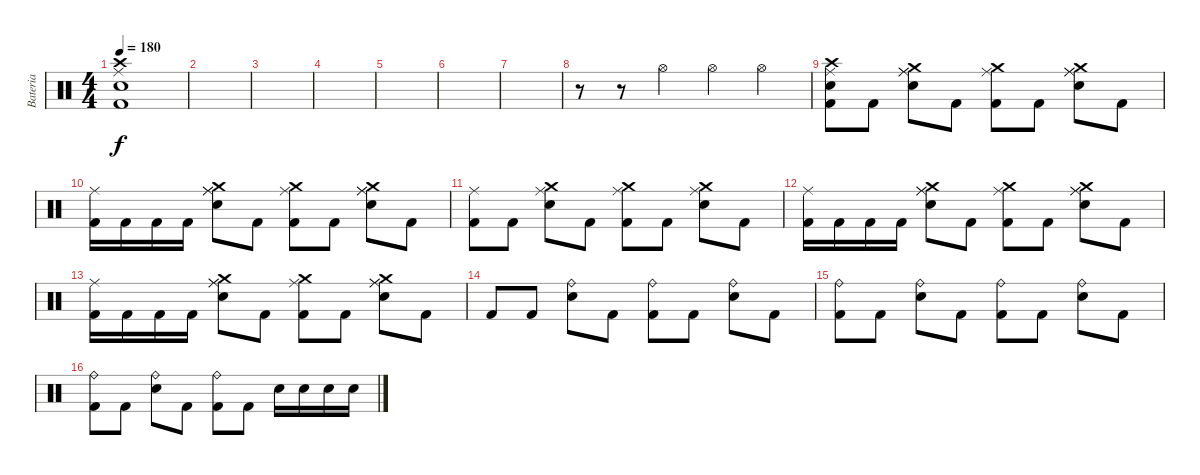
\track ("Bateria" "Bateria") {instrument percussion}
\staff {score}
\articulation defaults
\ts (4 4)
\tempo 180
\clef neutral
\ks c
("Ride (middle)" "Crash high (hit)" "Electric Snare (hit)" "Kick (hit) 2").1{dy f} |
|
|
|
|
|
|
r.8 r.8 "Hi-Hat (open)".4 "Hi-Hat (open)".4 "Hi-Hat (open)".4 |
("Kick (hit) 2" "Electric Snare (hit)" "Ride (middle)" "Crash high (hit)").8 "Kick (hit) 2".8 ("Electric Snare (hit)" "Ride (middle)" "Ride (middle)" "Crash medium (hit)").8 "Kick (hit) 2".8 ("Kick (hit) 2" "Ride (middle)" "Crash medium (hit)").8 "Kick (hit) 2".8 ("Electric Snare (hit)" "Ride (middle)" "Ride (middle)" "Crash medium (hit)").8 "Kick (hit) 2".8 |
("Kick (hit) 2" "Ride (middle)").16 "Kick (hit) 2".16 "Kick (hit) 2".16 "Kick (hit) 2".16 ("Electric Snare (hit)" "Ride (middle)" "Ride (middle)" "Crash medium (hit)").8 "Kick (hit) 2".8 ("Kick (hit) 2" "Ride (middle)" "Crash medium (hit)").8 "Kick (hit) 2".8 ("Electric Snare (hit)" "Ride (middle)" "Ride (middle)" "Crash medium (hit)").8 "Kick (hit) 2".8 |
("Kick (hit) 2" "Ride (middle)").8 "Kick (hit) 2".8 ("Electric Snare (hit)" "Ride (middle)" "Crash medium (hit)").8 "Kick (hit) 2".8 ("Kick (hit) 2" "Ride (middle)" "Crash medium (hit)").8 "Kick (hit) 2".8 ("Electric Snare (hit)" "Ride (middle)" "Crash medium (hit)").8 "Kick (hit) 2".8 |
("Kick (hit) 2" "Ride (middle)").16 "Kick (hit) 2".16 "Kick (hit) 2".16 "Kick (hit) 2".16 ("Electric Snare (hit)" "Ride (middle)" "Ride (middle)" "Crash medium (hit)").8 "Kick (hit) 2".8 ("Kick (hit) 2" "Ride (middle)" "Crash medium (hit)").8 "Kick (hit) 2".8 ("Electric Snare (hit)" "Ride (middle)" "Ride (middle)" "Crash medium (hit)").8 "Kick (hit) 2".8 |
("Kick (hit) 2" "Ride (middle)").16 "Kick (hit) 2".16 "Kick (hit) 2".16 "Kick (hit) 2".16 ("Electric Snare (hit)" "Ride (middle)" "Ride (middle)" "Crash medium (hit)").8 "Kick (hit) 2".8 ("Kick (hit) 2" "Ride (middle)" "Crash medium (hit)").8 "Kick (hit) 2".8 ("Electric Snare (hit)" "Ride (middle)" "Ride (middle)" "Crash medium (hit)").8 "Kick (hit) 2".8 |
"Kick (hit) 2".8 "Kick (hit) 2".8 ("Electric Snare (hit)" "Ride (bell)").8 "Kick (hit) 2".8 ("Kick (hit) 2" "Ride (bell)").8 "Kick (hit) 2".8 ("Electric Snare (hit)" "Ride (bell)").8 "Kick (hit) 2".8 |
("Kick (hit) 2" "Ride (bell)").8 "Kick (hit) 2".8 ("Electric Snare (hit)" "Ride (bell)").8 "Kick (hit) 2".8 ("Kick (hit) 2" "Ride (bell)").8 "Kick (hit) 2".8 ("Electric Snare (hit)" "Ride (bell)").8 "Kick (hit) 2".8 |
("Kick (hit) 2" "Ride (bell)").8 "Kick (hit) 2".8 ("Electric Snare (hit)" "Ride (bell)").8 "Kick (hit) 2".8 ("Kick (hit) 2" "Ride (bell)").8 "Kick (hit) 2".8 "Electric Snare (hit)".16 "Electric Snare (hit)".16 "Electric Snare (hit)".16 "Electric Snare (hit)".16
